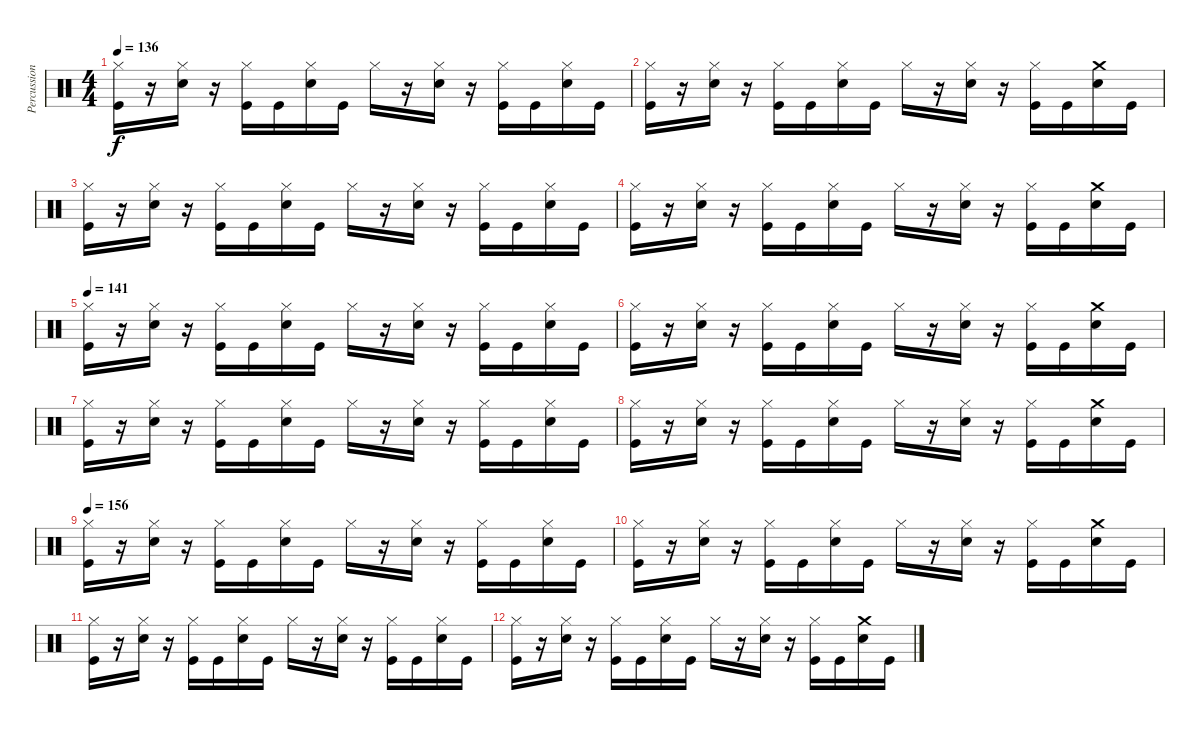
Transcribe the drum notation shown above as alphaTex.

\track ("Percussion" "Percussion") {instrument percussion}
\staff {score}
\articulation defaults
\ts (4 4)
\tempo 136
\clef neutral
\ks c
("Hi-Hat (closed)" "Kick (hit)").16{dy f} r.16 ("Hi-Hat (closed)" "Snare (hit) 2").16 r.16 ("Hi-Hat (closed)" "Kick (hit)").16 "Kick (hit)".16 ("Hi-Hat (closed)" "Snare (hit) 2").16 "Kick (hit)".16 "Hi-Hat (closed)".16 r.16 ("Hi-Hat (closed)" "Snare (hit) 2").16 r.16 ("Hi-Hat (closed)" "Kick (hit)").16 "Kick (hit)".16 ("Hi-Hat (closed)" "Snare (hit) 2").16 "Kick (hit)".16 |
("Hi-Hat (closed)" "Kick (hit)").16 r.16 ("Hi-Hat (closed)" "Snare (hit) 2").16 r.16 ("Hi-Hat (closed)" "Kick (hit)").16 "Kick (hit)".16 ("Hi-Hat (closed)" "Snare (hit) 2").16 "Kick (hit)".16 "Hi-Hat (closed)".16 r.16 ("Hi-Hat (closed)" "Snare (hit) 2").16 r.16 ("Hi-Hat (closed)" "Kick (hit)").16 "Kick (hit)".16 ("Crash medium (hit)" "Snare (hit) 2").16 "Kick (hit)".16 |
("Hi-Hat (closed)" "Kick (hit)").16 r.16 ("Hi-Hat (closed)" "Snare (hit) 2").16 r.16 ("Hi-Hat (closed)" "Kick (hit)").16 "Kick (hit)".16 ("Hi-Hat (closed)" "Snare (hit) 2").16 "Kick (hit)".16 "Hi-Hat (closed)".16 r.16 ("Hi-Hat (closed)" "Snare (hit) 2").16 r.16 ("Hi-Hat (closed)" "Kick (hit)").16 "Kick (hit)".16 ("Hi-Hat (closed)" "Snare (hit) 2").16 "Kick (hit)".16 |
("Hi-Hat (closed)" "Kick (hit)").16 r.16 ("Hi-Hat (closed)" "Snare (hit) 2").16 r.16 ("Hi-Hat (closed)" "Kick (hit)").16 "Kick (hit)".16 ("Hi-Hat (closed)" "Snare (hit) 2").16 "Kick (hit)".16 "Hi-Hat (closed)".16 r.16 ("Hi-Hat (closed)" "Snare (hit) 2").16 r.16 ("Hi-Hat (closed)" "Kick (hit)").16 "Kick (hit)".16 ("Crash medium (hit)" "Snare (hit) 2").16 "Kick (hit)".16 |
\tempo 141
("Hi-Hat (closed)" "Kick (hit)").16 r.16 ("Hi-Hat (closed)" "Snare (hit) 2").16 r.16 ("Hi-Hat (closed)" "Kick (hit)").16 "Kick (hit)".16 ("Hi-Hat (closed)" "Snare (hit) 2").16 "Kick (hit)".16 "Hi-Hat (closed)".16 r.16 ("Hi-Hat (closed)" "Snare (hit) 2").16 r.16 ("Hi-Hat (closed)" "Kick (hit)").16 "Kick (hit)".16 ("Hi-Hat (closed)" "Snare (hit) 2").16 "Kick (hit)".16 |
("Hi-Hat (closed)" "Kick (hit)").16 r.16 ("Hi-Hat (closed)" "Snare (hit) 2").16 r.16 ("Hi-Hat (closed)" "Kick (hit)").16 "Kick (hit)".16 ("Hi-Hat (closed)" "Snare (hit) 2").16 "Kick (hit)".16 "Hi-Hat (closed)".16 r.16 ("Hi-Hat (closed)" "Snare (hit) 2").16 r.16 ("Hi-Hat (closed)" "Kick (hit)").16 "Kick (hit)".16 ("Crash medium (hit)" "Snare (hit) 2").16 "Kick (hit)".16 |
("Hi-Hat (closed)" "Kick (hit)").16 r.16 ("Hi-Hat (closed)" "Snare (hit) 2").16 r.16 ("Hi-Hat (closed)" "Kick (hit)").16 "Kick (hit)".16 ("Hi-Hat (closed)" "Snare (hit) 2").16 "Kick (hit)".16 "Hi-Hat (closed)".16 r.16 ("Hi-Hat (closed)" "Snare (hit) 2").16 r.16 ("Hi-Hat (closed)" "Kick (hit)").16 "Kick (hit)".16 ("Hi-Hat (closed)" "Snare (hit) 2").16 "Kick (hit)".16 |
("Hi-Hat (closed)" "Kick (hit)").16 r.16 ("Hi-Hat (closed)" "Snare (hit) 2").16 r.16 ("Hi-Hat (closed)" "Kick (hit)").16 "Kick (hit)".16 ("Hi-Hat (closed)" "Snare (hit) 2").16 "Kick (hit)".16 "Hi-Hat (closed)".16 r.16 ("Hi-Hat (closed)" "Snare (hit) 2").16 r.16 ("Hi-Hat (closed)" "Kick (hit)").16 "Kick (hit)".16 ("Crash medium (hit)" "Snare (hit) 2").16 "Kick (hit)".16 |
\tempo 156
("Hi-Hat (closed)" "Kick (hit)").16 r.16 ("Hi-Hat (closed)" "Snare (hit) 2").16 r.16 ("Hi-Hat (closed)" "Kick (hit)").16 "Kick (hit)".16 ("Hi-Hat (closed)" "Snare (hit) 2").16 "Kick (hit)".16 "Hi-Hat (closed)".16 r.16 ("Hi-Hat (closed)" "Snare (hit) 2").16 r.16 ("Hi-Hat (closed)" "Kick (hit)").16 "Kick (hit)".16 ("Hi-Hat (closed)" "Snare (hit) 2").16 "Kick (hit)".16 |
("Hi-Hat (closed)" "Kick (hit)").16 r.16 ("Hi-Hat (closed)" "Snare (hit) 2").16 r.16 ("Hi-Hat (closed)" "Kick (hit)").16 "Kick (hit)".16 ("Hi-Hat (closed)" "Snare (hit) 2").16 "Kick (hit)".16 "Hi-Hat (closed)".16 r.16 ("Hi-Hat (closed)" "Snare (hit) 2").16 r.16 ("Hi-Hat (closed)" "Kick (hit)").16 "Kick (hit)".16 ("Crash medium (hit)" "Snare (hit) 2").16 "Kick (hit)".16 |
("Hi-Hat (closed)" "Kick (hit)").16 r.16 ("Hi-Hat (closed)" "Snare (hit) 2").16 r.16 ("Hi-Hat (closed)" "Kick (hit)").16 "Kick (hit)".16 ("Hi-Hat (closed)" "Snare (hit) 2").16 "Kick (hit)".16 "Hi-Hat (closed)".16 r.16 ("Hi-Hat (closed)" "Snare (hit) 2").16 r.16 ("Hi-Hat (closed)" "Kick (hit)").16 "Kick (hit)".16 ("Hi-Hat (closed)" "Snare (hit) 2").16 "Kick (hit)".16 |
("Hi-Hat (closed)" "Kick (hit)").16 r.16 ("Hi-Hat (closed)" "Snare (hit) 2").16 r.16 ("Hi-Hat (closed)" "Kick (hit)").16 "Kick (hit)".16 ("Hi-Hat (closed)" "Snare (hit) 2").16 "Kick (hit)".16 "Hi-Hat (closed)".16 r.16 ("Hi-Hat (closed)" "Snare (hit) 2").16 r.16 ("Hi-Hat (closed)" "Kick (hit)").16 "Kick (hit)".16 ("Crash medium (hit)" "Snare (hit) 2").16 "Kick (hit)".16
